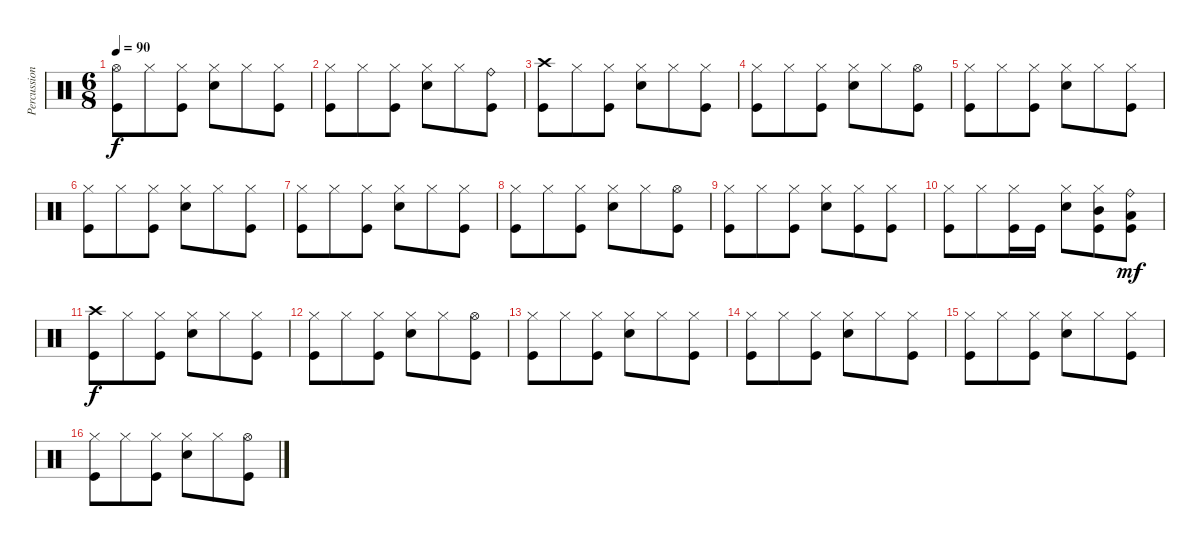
\track ("Percussion" "Percussion") {instrument percussion}
\staff {score}
\articulation defaults
\ts (6 8)
\tempo 90
\clef neutral
\ks c
("Kick (hit)" "Hi-Hat (open)").8{dy f} "Hi-Hat (closed)".8 ("Kick (hit)" "Hi-Hat (closed)").8 ("Electric Snare (hit)" "Hi-Hat (closed)").8 "Hi-Hat (closed)".8 ("Kick (hit)" "Hi-Hat (closed)").8 |
("Kick (hit)" "Hi-Hat (closed)").8 "Hi-Hat (closed)".8 ("Kick (hit)" "Hi-Hat (closed)").8 ("Electric Snare (hit)" "Hi-Hat (closed)").8 "Hi-Hat (closed)".8 ("Kick (hit)" "Ride (bell)").8 |
("Kick (hit)" "Crash high (hit)").8 "Hi-Hat (closed)".8 ("Hi-Hat (closed)" "Kick (hit)").8 ("Electric Snare (hit)" "Hi-Hat (closed)").8 "Hi-Hat (closed)".8 ("Kick (hit)" "Hi-Hat (closed)").8 |
("Kick (hit)" "Hi-Hat (closed)").8 "Hi-Hat (closed)".8 ("Hi-Hat (closed)" "Kick (hit)").8 ("Electric Snare (hit)" "Hi-Hat (closed)").8 "Hi-Hat (closed)".8 ("Kick (hit)" "Hi-Hat (open)").8 |
("Kick (hit)" "Hi-Hat (closed)").8 "Hi-Hat (closed)".8 ("Kick (hit)" "Hi-Hat (closed)").8 ("Electric Snare (hit)" "Hi-Hat (closed)").8 "Hi-Hat (closed)".8 ("Kick (hit)" "Hi-Hat (closed)").8 |
("Kick (hit)" "Hi-Hat (closed)").8 "Hi-Hat (closed)".8 ("Kick (hit)" "Hi-Hat (closed)").8 ("Electric Snare (hit)" "Hi-Hat (closed)").8 "Hi-Hat (closed)".8 ("Kick (hit)" "Hi-Hat (closed)").8 |
("Kick (hit)" "Hi-Hat (closed)").8 "Hi-Hat (closed)".8 ("Kick (hit)" "Hi-Hat (closed)").8 ("Electric Snare (hit)" "Hi-Hat (closed)").8 "Hi-Hat (closed)".8 ("Kick (hit)" "Hi-Hat (closed)").8 |
("Kick (hit)" "Hi-Hat (closed)").8 "Hi-Hat (closed)".8 ("Kick (hit)" "Hi-Hat (closed)").8 ("Electric Snare (hit)" "Hi-Hat (closed)").8 "Hi-Hat (closed)".8 ("Kick (hit)" "Hi-Hat (open)").8 |
("Kick (hit)" "Hi-Hat (closed)").8 "Hi-Hat (closed)".8 ("Kick (hit)" "Hi-Hat (closed)").8 ("Electric Snare (hit)" "Hi-Hat (closed)").8 ("Kick (hit)" "Hi-Hat (closed)").8 ("Kick (hit)" "Hi-Hat (closed)").8 |
("Kick (hit)" "Hi-Hat (closed)").8 "Hi-Hat (closed)".8 ("Kick (hit)" "Hi-Hat (closed)").16 "Kick (hit)".16 ("Electric Snare (hit)" "Hi-Hat (closed)").8 ("Mid Tom (hit)" "Kick (hit)" "Hi-Hat (closed)").8 ("Low Tom (hit)" "Kick (hit)" "Ride (bell)").8{dy mf} |
("Kick (hit)" "Crash high (hit)").8{dy f} "Hi-Hat (closed)".8 ("Hi-Hat (closed)" "Kick (hit)").8 ("Electric Snare (hit)" "Hi-Hat (closed)").8 "Hi-Hat (closed)".8 ("Kick (hit)" "Hi-Hat (closed)").8 |
("Kick (hit)" "Hi-Hat (closed)").8 "Hi-Hat (closed)".8 ("Hi-Hat (closed)" "Kick (hit)").8 ("Electric Snare (hit)" "Hi-Hat (closed)").8 "Hi-Hat (closed)".8 ("Kick (hit)" "Hi-Hat (open)").8 |
("Kick (hit)" "Hi-Hat (closed)").8 "Hi-Hat (closed)".8 ("Kick (hit)" "Hi-Hat (closed)").8 ("Electric Snare (hit)" "Hi-Hat (closed)").8 "Hi-Hat (closed)".8 ("Kick (hit)" "Hi-Hat (closed)").8 |
("Kick (hit)" "Hi-Hat (closed)").8 "Hi-Hat (closed)".8 ("Kick (hit)" "Hi-Hat (closed)").8 ("Electric Snare (hit)" "Hi-Hat (closed)").8 "Hi-Hat (closed)".8 ("Kick (hit)" "Hi-Hat (closed)").8 |
("Kick (hit)" "Hi-Hat (closed)").8 "Hi-Hat (closed)".8 ("Kick (hit)" "Hi-Hat (closed)").8 ("Electric Snare (hit)" "Hi-Hat (closed)").8 "Hi-Hat (closed)".8 ("Kick (hit)" "Hi-Hat (closed)").8 |
("Kick (hit)" "Hi-Hat (closed)").8 "Hi-Hat (closed)".8 ("Kick (hit)" "Hi-Hat (closed)").8 ("Electric Snare (hit)" "Hi-Hat (closed)").8 "Hi-Hat (closed)".8 ("Kick (hit)" "Hi-Hat (open)").8
